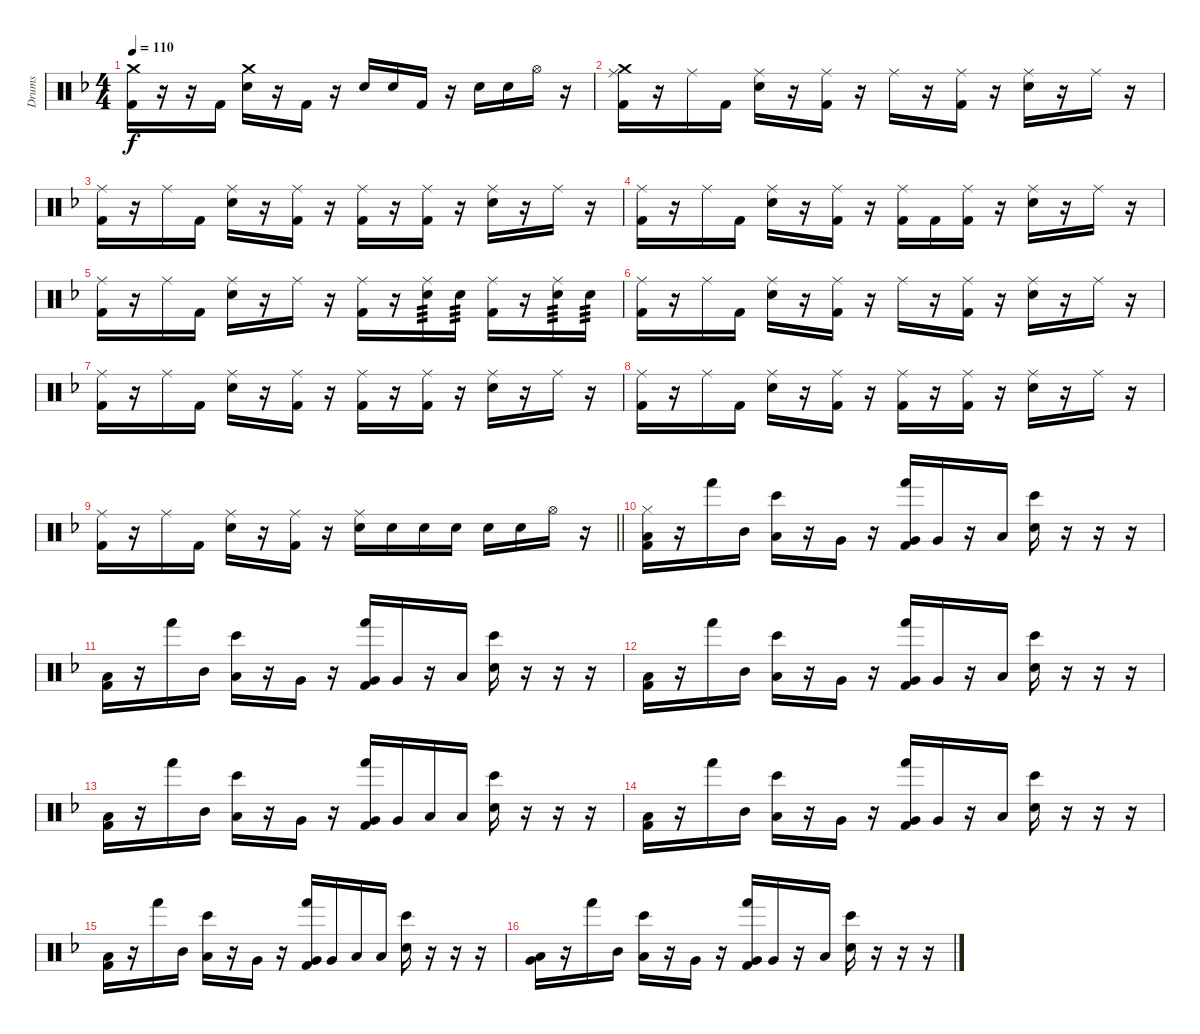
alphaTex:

\track ("Drums" "Drums") {instrument percussion}
\staff {score}
\articulation defaults
\ts (4 4)
\tempo 110
\clef neutral
\ks dminor
("Crash medium (hit)" "Kick (hit) 2").16{dy f} r.16 r.16 "Kick (hit) 2".16 ("Crash medium (hit)" "Snare (hit) 2").16 r.16 "Kick (hit) 2".16 r.16 "Snare (hit) 2".16 "Snare (hit) 2".16 "Kick (hit) 2".16 r.16 "Snare (hit) 2".16 "Snare (hit) 2".16 "Hi-Hat (open)".16 r.16 |
("Crash medium (hit)" "Ride (middle)" "Kick (hit) 2").16 r.16 "Ride (middle)".16 "Kick (hit) 2".16 ("Ride (middle)" "Snare (hit) 2").16 r.16 ("Ride (middle)" "Kick (hit) 2").16 r.16 "Ride (middle)".16 r.16 ("Ride (middle)" "Kick (hit) 2").16 r.16 ("Ride (middle)" "Snare (hit) 2").16 r.16 "Ride (middle)".16 r.16 |
("Ride (middle)" "Kick (hit) 2").16 r.16 "Ride (middle)".16 "Kick (hit) 2".16 ("Ride (middle)" "Snare (hit) 2").16 r.16 ("Ride (middle)" "Kick (hit) 2").16 r.16 ("Ride (middle)" "Kick (hit) 2").16 r.16 ("Ride (middle)" "Kick (hit) 2").16 r.16 ("Ride (middle)" "Snare (hit) 2").16 r.16 "Ride (middle)".16 r.16 |
("Ride (middle)" "Kick (hit) 2").16 r.16 "Ride (middle)".16 "Kick (hit) 2".16 ("Ride (middle)" "Snare (hit) 2").16 r.16 ("Ride (middle)" "Kick (hit) 2").16 r.16 ("Ride (middle)" "Kick (hit) 2").16 "Kick (hit) 2".16 ("Ride (middle)" "Kick (hit) 2").16 r.16 ("Ride (middle)" "Snare (hit) 2").16 r.16 "Ride (middle)".16 r.16 |
("Ride (middle)" "Kick (hit) 2").16 r.16 "Ride (middle)".16 "Kick (hit) 2".16 ("Ride (middle)" "Snare (hit) 2").16 r.16 "Ride (middle)".16 r.16 ("Ride (middle)" "Kick (hit) 2").16 r.16 ("Ride (middle)" "Snare (hit) 2").16{tp 3} "Snare (hit) 2".16{tp 3} ("Ride (middle)" "Kick (hit) 2").16 r.16 ("Ride (middle)" "Snare (hit) 2").16{tp 3} "Snare (hit) 2".16{tp 3} |
("Ride (middle)" "Kick (hit) 2").16 r.16 "Ride (middle)".16 "Kick (hit) 2".16 ("Ride (middle)" "Snare (hit) 2").16 r.16 ("Ride (middle)" "Kick (hit) 2").16 r.16 "Ride (middle)".16 r.16 ("Ride (middle)" "Kick (hit) 2").16 r.16 ("Ride (middle)" "Snare (hit) 2").16 r.16 "Ride (middle)".16 r.16 |
("Ride (middle)" "Kick (hit) 2").16 r.16 "Ride (middle)".16 "Kick (hit) 2".16 ("Ride (middle)" "Snare (hit) 2").16 r.16 ("Ride (middle)" "Kick (hit) 2").16 r.16 ("Ride (middle)" "Kick (hit) 2").16 r.16 ("Ride (middle)" "Kick (hit) 2").16 r.16 ("Ride (middle)" "Snare (hit) 2").16 r.16 "Ride (middle)".16 r.16 |
("Ride (middle)" "Kick (hit) 2").16 r.16 "Ride (middle)".16 "Kick (hit) 2".16 ("Ride (middle)" "Snare (hit) 2").16 r.16 ("Ride (middle)" "Kick (hit) 2").16 r.16 ("Ride (middle)" "Kick (hit) 2").16 r.16 ("Ride (middle)" "Kick (hit) 2").16 r.16 ("Ride (middle)" "Snare (hit) 2").16 r.16 "Ride (middle)".16 r.16 |
\barLineRight lightlight
("Ride (middle)" "Kick (hit) 2").16 r.16 "Ride (middle)".16 "Kick (hit) 2".16 ("Ride (middle)" "Snare (hit) 2").16 r.16 ("Ride (middle)" "Kick (hit) 2").16 r.16 ("Ride (middle)" "Snare (hit) 2").16 "Snare (hit) 2".16 "Snare (hit) 2".16 "Snare (hit) 2".16 "Snare (hit) 2".16 "Snare (hit) 2".16 "Hi-Hat (open)".16 r.16 |
("Hi-Hat (closed)" "Low Floor Tom (hit)" "Kick (hit) 2").16 r.16 "Hand (hit)".16 "Mid Tom (hit)".16 ("Bongo High (hit)" "Low Tom (hit)").16 r.16 "Very Low Tom (hit)".16 r.16 ("Hand (hit)" "Very Low Tom (hit)" "Kick (hit) 2").16 "Very Low Tom (hit)".16 r.16 "Low Floor Tom (hit)".16 ("Bongo High (hit)" "Snare (hit) 2").16 r.16 r.16 r.16 |
("Low Floor Tom (hit)" "Kick (hit) 2").16 r.16 "Hand (hit)".16 "Mid Tom (hit)".16 ("Bongo High (hit)" "Low Tom (hit)").16 r.16 "Very Low Tom (hit)".16 r.16 ("Hand (hit)" "Very Low Tom (hit)" "Kick (hit) 2").16 "Very Low Tom (hit)".16 r.16 "Low Floor Tom (hit)".16 ("Bongo High (hit)" "Snare (hit) 2").16 r.16 r.16 r.16 |
("Low Floor Tom (hit)" "Kick (hit) 2").16 r.16 "Hand (hit)".16 "Mid Tom (hit)".16 ("Bongo High (hit)" "Low Tom (hit)").16 r.16 "Very Low Tom (hit)".16 r.16 ("Hand (hit)" "Very Low Tom (hit)" "Kick (hit) 2").16 "Very Low Tom (hit)".16 r.16 "Low Floor Tom (hit)".16 ("Bongo High (hit)" "Snare (hit) 2").16 r.16 r.16 r.16 |
("Low Floor Tom (hit)" "Kick (hit) 2").16 r.16 "Hand (hit)".16 "Mid Tom (hit)".16 ("Bongo High (hit)" "Low Tom (hit)").16 r.16 "Very Low Tom (hit)".16 r.16 ("Hand (hit)" "Very Low Tom (hit)" "Kick (hit) 2").16 "Very Low Tom (hit)".16 "Low Floor Tom (hit)".16 "Low Floor Tom (hit)".16 ("Bongo High (hit)" "Snare (hit) 2").16 r.16 r.16 r.16 |
("Low Floor Tom (hit)" "Kick (hit) 2").16 r.16 "Hand (hit)".16 "Mid Tom (hit)".16 ("Bongo High (hit)" "Low Tom (hit)").16 r.16 "Very Low Tom (hit)".16 r.16 ("Hand (hit)" "Very Low Tom (hit)" "Kick (hit) 2").16 "Very Low Tom (hit)".16 r.16 "Low Floor Tom (hit)".16 ("Bongo High (hit)" "Snare (hit) 2").16 r.16 r.16 r.16 |
("Low Floor Tom (hit)" "Kick (hit) 2").16 r.16 "Hand (hit)".16 "Mid Tom (hit)".16 ("Bongo High (hit)" "Low Tom (hit)").16 r.16 "Very Low Tom (hit)".16 r.16 ("Hand (hit)" "Very Low Tom (hit)" "Kick (hit) 2").16 "Very Low Tom (hit)".16 "Low Floor Tom (hit)".16 "Low Floor Tom (hit)".16 ("Bongo High (hit)" "Snare (hit) 2").16 r.16 r.16 r.16 |
("Low Floor Tom (hit)" "Very Low Tom (hit)").16 r.16 "Hand (hit)".16 "Mid Tom (hit)".16 ("Bongo High (hit)" "Low Tom (hit)").16 r.16 "Very Low Tom (hit)".16 r.16 ("Hand (hit)" "Very Low Tom (hit)" "Kick (hit) 2").16 "Very Low Tom (hit)".16 r.16 "Low Floor Tom (hit)".16 ("Bongo High (hit)" "Snare (hit) 2").16 r.16 r.16 r.16
